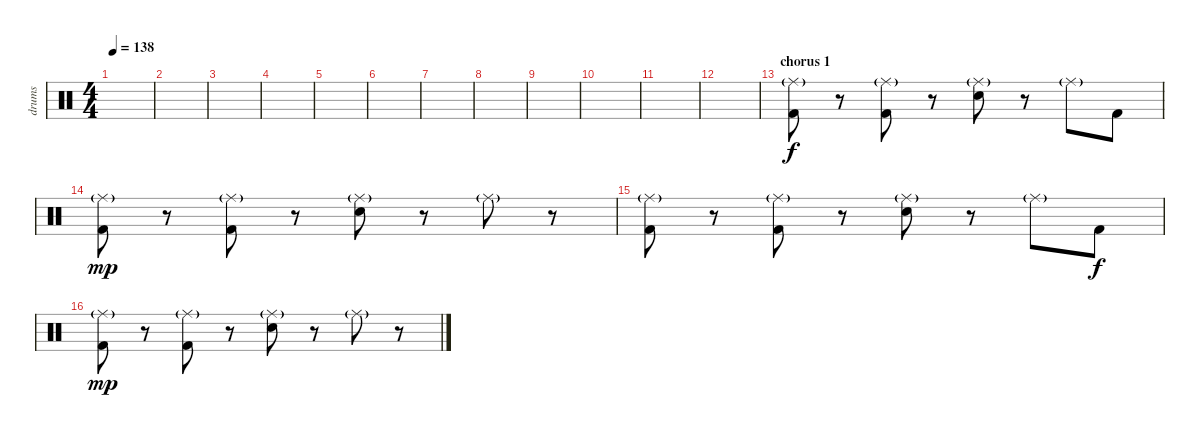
\track ("drums" "drums") {instrument percussion}
\staff {score}
\articulation defaults
\ts (4 4)
\tempo 138
\clef neutral
\ks c
|
|
|
|
|
|
|
|
|
|
|
|
\section ("" "chorus 1")
("Kick (hit) 2" "Ride (middle)"{g}).8 r.8 ("Kick (hit) 2" "Ride (middle)"{g}).8 r.8 ("Electric Snare (hit)" "Ride (middle)"{g}).8 r.8 "Ride (middle)"{g}.8 "Kick (hit) 2".8{dy f} |
("Kick (hit) 2" "Ride (middle)"{g}).8{dy mp} r.8 ("Kick (hit) 2" "Ride (middle)"{g}).8 r.8 ("Electric Snare (hit)" "Ride (middle)"{g}).8 r.8 "Ride (middle)"{g}.8 r.8 |
("Kick (hit) 2" "Ride (middle)"{g}).8 r.8 ("Kick (hit) 2" "Ride (middle)"{g}).8 r.8 ("Electric Snare (hit)" "Ride (middle)"{g}).8 r.8 "Ride (middle)"{g}.8 "Kick (hit) 2".8{dy f} |
("Kick (hit) 2" "Ride (middle)"{g}).8{dy mp} r.8 ("Kick (hit) 2" "Ride (middle)"{g}).8 r.8 ("Electric Snare (hit)" "Ride (middle)"{g}).8 r.8 "Ride (middle)"{g}.8 r.8
